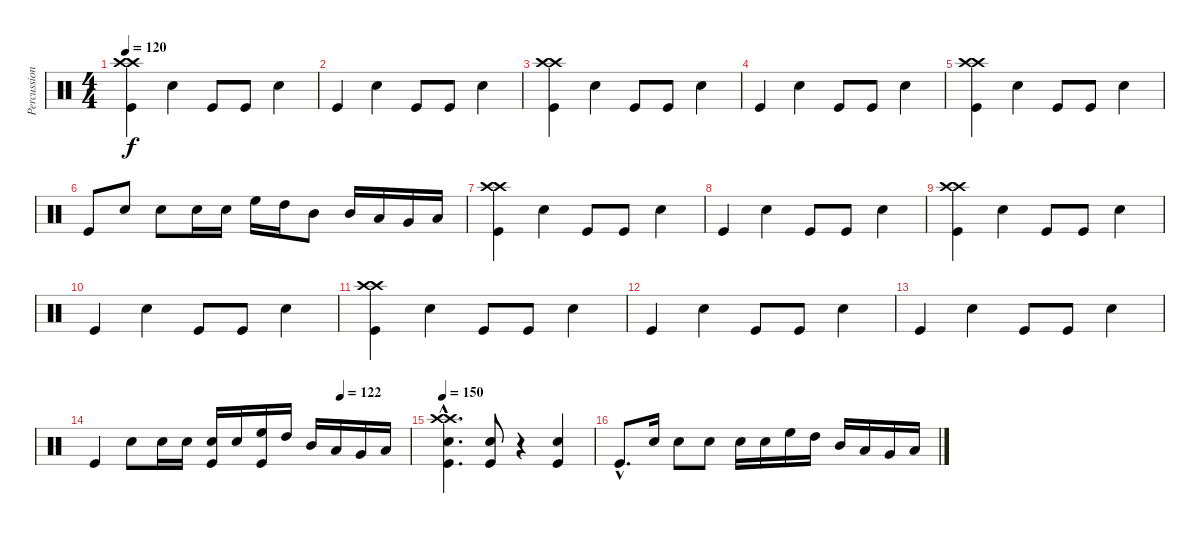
\track ("Percussion" "Percussion") {instrument percussion}
\staff {score}
\articulation defaults
\ts (4 4)
\tempo 120
\clef neutral
\ks c
("Crash high (hit)" "Crash high (hit)" "Kick (hit)").4{dy f} "Snare (hit) 2".4 "Kick (hit)".8 "Kick (hit)".8 "Snare (hit) 2".4 |
"Kick (hit)".4 "Snare (hit) 2".4 "Kick (hit)".8 "Kick (hit)".8 "Snare (hit) 2".4 |
("Crash high (hit)" "Crash high (hit)" "Kick (hit)").4 "Snare (hit) 2".4 "Kick (hit)".8 "Kick (hit)".8 "Snare (hit) 2".4 |
"Kick (hit)".4 "Snare (hit) 2".4 "Kick (hit)".8 "Kick (hit)".8 "Snare (hit) 2".4 |
("Crash high (hit)" "Crash high (hit)" "Kick (hit)").4 "Snare (hit) 2".4 "Kick (hit)".8 "Kick (hit)".8 "Snare (hit) 2".4 |
"Kick (hit)".8 "Snare (hit) 2".8 "Snare (hit) 2".8 "Snare (hit) 2".16 "Snare (hit) 2".16 "High Floor Tom (hit)".16 "High Tom (hit)".16 "Mid Tom (hit)".8 "Mid Tom (hit)".16 "Low Tom (hit)".16 "Very Low Tom (hit)".16 "Low Floor Tom (hit)".16 |
("Crash high (hit)" "Crash high (hit)" "Kick (hit)").4 "Snare (hit) 2".4 "Kick (hit)".8 "Kick (hit)".8 "Snare (hit) 2".4 |
"Kick (hit)".4 "Snare (hit) 2".4 "Kick (hit)".8 "Kick (hit)".8 "Snare (hit) 2".4 |
("Crash high (hit)" "Crash high (hit)" "Kick (hit)").4 "Snare (hit) 2".4 "Kick (hit)".8 "Kick (hit)".8 "Snare (hit) 2".4 |
"Kick (hit)".4 "Snare (hit) 2".4 "Kick (hit)".8 "Kick (hit)".8 "Snare (hit) 2".4 |
("Crash high (hit)" "Crash high (hit)" "Kick (hit)").4 "Snare (hit) 2".4 "Kick (hit)".8 "Kick (hit)".8 "Snare (hit) 2".4 |
"Kick (hit)".4 "Snare (hit) 2".4 "Kick (hit)".8 "Kick (hit)".8 "Snare (hit) 2".4 |
"Kick (hit)".4 "Snare (hit) 2".4 "Kick (hit)".8 "Kick (hit)".8 "Snare (hit) 2".4 |
\tempo (122 0.78125)
"Kick (hit)".4 "Snare (hit) 2".8 "Snare (hit) 2".16 "Snare (hit) 2".16 ("Snare (hit) 2" "Kick (hit)").16 "Snare (hit) 2".16 ("High Floor Tom (hit)" "Kick (hit)").16 "High Tom (hit)".16 "Mid Tom (hit)".16 "Low Tom (hit)".16 "Very Low Tom (hit)".16 "Low Floor Tom (hit)".16 |
\tempo 150
("Crash high (hit)"{hac} "Crash high (hit)"{hac} "Snare (hit) 2"{hac} "Kick (hit)"{hac}).4{d} ("Snare (hit) 2" "Kick (hit)").8 r.4 ("Snare (hit) 2" "Kick (hit)").4 |
"Kick (hit)"{hac}.8{d} "Snare (hit) 2".16 "Snare (hit) 2".8 "Snare (hit) 2".8 "Snare (hit) 2".16 "Snare (hit) 2".16 "High Floor Tom (hit)".16 "High Tom (hit)".16 "Mid Tom (hit)".16 "Low Tom (hit)".16 "Very Low Tom (hit)".16 "Low Floor Tom (hit)".16
